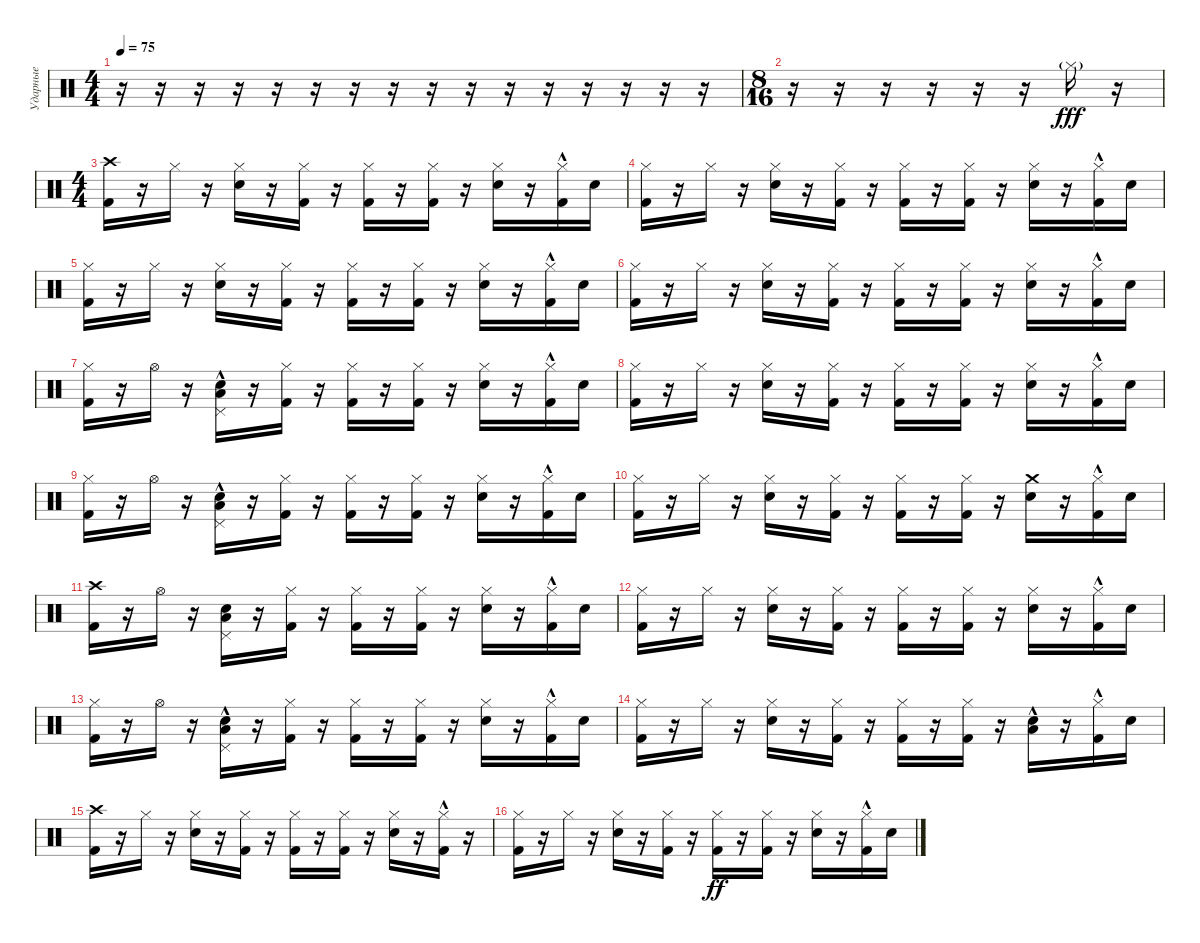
\track ("Ударные" "Ударные") {instrument percussion}
\staff {score}
\articulation defaults
\ts (4 4)
\tempo 75
\clef neutral
\ks c
r.16{dy fff} r.16 r.16 r.16 r.16 r.16 r.16 r.16 r.16 r.16 r.16 r.16 r.16 r.16 r.16 r.16 |
\ts (8 16)
r.16 r.16 r.16 r.16 r.16 r.16 "Hi-Hat (closed)"{g}.16 r.16 |
\ts (4 4)
("Crash high (hit)" "Kick (hit) 2").16 r.16 "Hi-Hat (closed)".16 r.16 ("Hi-Hat (closed)" "Electric Snare (hit)").16 r.16 ("Hi-Hat (closed)" "Kick (hit) 2").16 r.16 ("Hi-Hat (closed)" "Kick (hit) 2").16 r.16 ("Hi-Hat (closed)" "Kick (hit) 2").16 r.16 ("Hi-Hat (closed)" "Electric Snare (hit)").16 r.16 ("Hi-Hat (closed)"{hac} "Kick (hit) 2").16 "Electric Snare (hit)".16 |
("Hi-Hat (closed)" "Kick (hit) 2").16 r.16 "Hi-Hat (closed)".16 r.16 ("Hi-Hat (closed)" "Electric Snare (hit)").16 r.16 ("Hi-Hat (closed)" "Kick (hit) 2").16 r.16 ("Hi-Hat (closed)" "Kick (hit) 2").16 r.16 ("Hi-Hat (closed)" "Kick (hit) 2").16 r.16 ("Hi-Hat (closed)" "Electric Snare (hit)").16 r.16 ("Hi-Hat (closed)"{hac} "Kick (hit) 2").16 "Electric Snare (hit)".16 |
("Hi-Hat (closed)" "Kick (hit) 2").16 r.16 "Hi-Hat (closed)".16 r.16 ("Hi-Hat (closed)" "Electric Snare (hit)").16 r.16 ("Hi-Hat (closed)" "Kick (hit) 2").16 r.16 ("Hi-Hat (closed)" "Kick (hit) 2").16 r.16 ("Hi-Hat (closed)" "Kick (hit) 2").16 r.16 ("Hi-Hat (closed)" "Electric Snare (hit)").16 r.16 ("Hi-Hat (closed)"{hac} "Kick (hit) 2").16 "Electric Snare (hit)".16 |
("Hi-Hat (closed)" "Kick (hit) 2").16 r.16 "Hi-Hat (closed)".16 r.16 ("Hi-Hat (closed)" "Electric Snare (hit)").16 r.16 ("Hi-Hat (closed)" "Kick (hit) 2").16 r.16 ("Hi-Hat (closed)" "Kick (hit) 2").16 r.16 ("Hi-Hat (closed)" "Kick (hit) 2").16 r.16 ("Hi-Hat (closed)" "Electric Snare (hit)").16 r.16 ("Hi-Hat (closed)"{hac} "Kick (hit) 2").16 "Electric Snare (hit)".16 |
("Hi-Hat (closed)" "Kick (hit) 2").16 r.16 "Hi-Hat (open)".16 r.16 ("Pedal Hi-Hat (hit)"{hac} "Electric Snare (hit)"{hac} "Low Floor Tom (hit)"{hac}).16 r.16 ("Hi-Hat (closed)" "Kick (hit) 2").16 r.16 ("Hi-Hat (closed)" "Kick (hit) 2").16 r.16 ("Hi-Hat (closed)" "Kick (hit) 2").16 r.16 ("Hi-Hat (closed)" "Electric Snare (hit)").16 r.16 ("Hi-Hat (closed)"{hac} "Kick (hit) 2").16 "Electric Snare (hit)".16 |
("Hi-Hat (closed)" "Kick (hit) 2").16 r.16 "Hi-Hat (closed)".16 r.16 ("Hi-Hat (closed)" "Electric Snare (hit)").16 r.16 ("Hi-Hat (closed)" "Kick (hit) 2").16 r.16 ("Hi-Hat (closed)" "Kick (hit) 2").16 r.16 ("Hi-Hat (closed)" "Kick (hit) 2").16 r.16 ("Hi-Hat (closed)" "Electric Snare (hit)").16 r.16 ("Hi-Hat (closed)"{hac} "Kick (hit) 2").16 "Electric Snare (hit)".16 |
("Hi-Hat (closed)" "Kick (hit) 2").16 r.16 "Hi-Hat (open)".16 r.16 ("Pedal Hi-Hat (hit)"{hac} "Electric Snare (hit)"{hac} "Low Floor Tom (hit)"{hac}).16 r.16 ("Hi-Hat (closed)" "Kick (hit) 2").16 r.16 ("Hi-Hat (closed)" "Kick (hit) 2").16 r.16 ("Hi-Hat (closed)" "Kick (hit) 2").16 r.16 ("Hi-Hat (closed)" "Electric Snare (hit)").16 r.16 ("Hi-Hat (closed)"{hac} "Kick (hit) 2").16 "Electric Snare (hit)".16 |
("Hi-Hat (closed)" "Kick (hit) 2").16 r.16 "Hi-Hat (closed)".16 r.16 ("Hi-Hat (closed)" "Electric Snare (hit)").16 r.16 ("Hi-Hat (closed)" "Kick (hit) 2").16 r.16 ("Hi-Hat (closed)" "Kick (hit) 2").16 r.16 ("Hi-Hat (closed)" "Kick (hit) 2").16 r.16 ("Crash medium (hit)" "Electric Snare (hit)").16 r.16 ("Hi-Hat (closed)"{hac} "Kick (hit) 2").16 "Electric Snare (hit)".16 |
("Crash high (hit)" "Kick (hit) 2").16 r.16 "Hi-Hat (open)".16 r.16 ("Pedal Hi-Hat (hit)" "Electric Snare (hit)" "Low Floor Tom (hit)").16 r.16 ("Hi-Hat (closed)" "Kick (hit) 2").16 r.16 ("Hi-Hat (closed)" "Kick (hit) 2").16 r.16 ("Hi-Hat (closed)" "Kick (hit) 2").16 r.16 ("Hi-Hat (closed)" "Electric Snare (hit)").16 r.16 ("Hi-Hat (closed)"{hac} "Kick (hit) 2").16 "Electric Snare (hit)".16 |
("Hi-Hat (closed)" "Kick (hit) 2").16 r.16 "Hi-Hat (closed)".16 r.16 ("Hi-Hat (closed)" "Electric Snare (hit)").16 r.16 ("Hi-Hat (closed)" "Kick (hit) 2").16 r.16 ("Hi-Hat (closed)" "Kick (hit) 2").16 r.16 ("Hi-Hat (closed)" "Kick (hit) 2").16 r.16 ("Hi-Hat (closed)" "Electric Snare (hit)").16 r.16 ("Hi-Hat (closed)"{hac} "Kick (hit) 2").16 "Electric Snare (hit)".16 |
("Hi-Hat (closed)" "Kick (hit) 2").16 r.16 "Hi-Hat (open)".16 r.16 ("Pedal Hi-Hat (hit)"{hac} "Electric Snare (hit)"{hac} "Low Floor Tom (hit)"{hac}).16 r.16 ("Hi-Hat (closed)" "Kick (hit) 2").16 r.16 ("Hi-Hat (closed)" "Kick (hit) 2").16 r.16 ("Hi-Hat (closed)" "Kick (hit) 2").16 r.16 ("Hi-Hat (closed)" "Electric Snare (hit)").16 r.16 ("Hi-Hat (closed)"{hac} "Kick (hit) 2").16 "Electric Snare (hit)".16 |
("Hi-Hat (closed)" "Kick (hit) 2").16 r.16 "Hi-Hat (closed)".16 r.16 ("Hi-Hat (closed)" "Electric Snare (hit)").16 r.16 ("Hi-Hat (closed)" "Kick (hit) 2").16 r.16 ("Hi-Hat (closed)" "Kick (hit) 2").16 r.16 ("Hi-Hat (closed)" "Kick (hit) 2").16 r.16 ("Electric Snare (hit)"{hac} "Low Floor Tom (hit)"{hac}).16 r.16 ("Hi-Hat (closed)"{hac} "Kick (hit) 2").16 "Electric Snare (hit)".16 |
("Crash high (hit)" "Kick (hit) 2").16 r.16 "Hi-Hat (closed)".16 r.16 ("Hi-Hat (closed)" "Electric Snare (hit)").16 r.16 ("Hi-Hat (closed)" "Kick (hit) 2").16 r.16 ("Hi-Hat (closed)" "Kick (hit) 2").16 r.16 ("Hi-Hat (closed)" "Kick (hit) 2").16 r.16 ("Hi-Hat (closed)" "Electric Snare (hit)").16 r.16 ("Hi-Hat (closed)"{hac} "Kick (hit) 2").16 r.16 |
("Hi-Hat (closed)" "Kick (hit) 2").16 r.16 "Hi-Hat (closed)".16 r.16 ("Hi-Hat (closed)" "Electric Snare (hit)").16 r.16 ("Hi-Hat (closed)" "Kick (hit) 2").16 r.16 ("Hi-Hat (closed)" "Kick (hit) 2").16{dy ff} r.16 ("Hi-Hat (closed)" "Kick (hit) 2").16 r.16 ("Hi-Hat (closed)" "Electric Snare (hit)").16 r.16 ("Hi-Hat (closed)"{hac} "Kick (hit) 2").16 "Electric Snare (hit)".16
